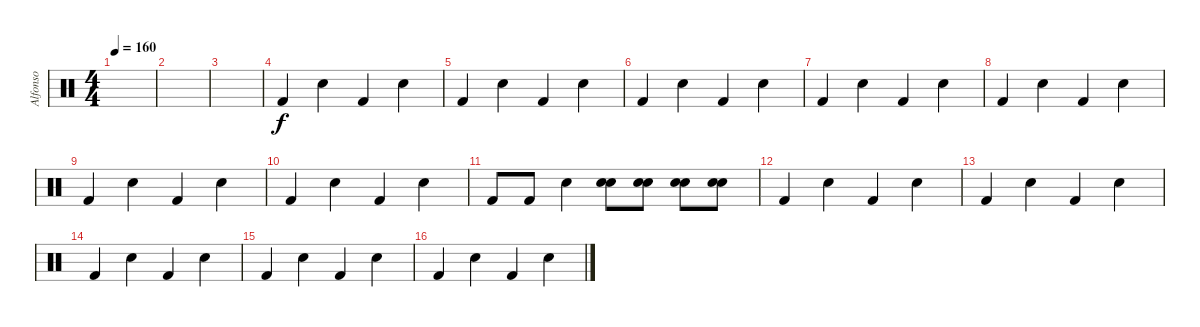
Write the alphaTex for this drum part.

\track ("Alfonso" "Alfonso") {instrument percussion}
\staff {score}
\articulation defaults
\ts (4 4)
\tempo 160
\clef neutral
\ks c
|
|
|
"Kick (hit) 2".4 "Electric Snare (hit)".4 "Kick (hit) 2".4 "Electric Snare (hit)".4 |
"Kick (hit) 2".4 "Electric Snare (hit)".4 "Kick (hit) 2".4 "Electric Snare (hit)".4 |
"Kick (hit) 2".4 "Electric Snare (hit)".4 "Kick (hit) 2".4 "Electric Snare (hit)".4 |
"Kick (hit) 2".4 "Electric Snare (hit)".4 "Kick (hit) 2".4 "Electric Snare (hit)".4 |
"Kick (hit) 2".4 "Electric Snare (hit)".4 "Kick (hit) 2".4 "Electric Snare (hit)".4 |
"Kick (hit) 2".4 "Electric Snare (hit)".4 "Kick (hit) 2".4 "Electric Snare (hit)".4 |
"Kick (hit) 2".4 "Electric Snare (hit)".4 "Kick (hit) 2".4 "Electric Snare (hit)".4 |
"Kick (hit) 2".8 "Kick (hit) 2".8 "Electric Snare (hit)".4 ("Electric Snare (hit)" "Snare (hit) 2").8 ("Electric Snare (hit)" "Snare (hit) 2").8 ("Electric Snare (hit)" "Snare (hit) 2").8 ("Electric Snare (hit)" "Snare (hit) 2").8 |
"Kick (hit) 2".4 "Electric Snare (hit)".4 "Kick (hit) 2".4 "Electric Snare (hit)".4 |
"Kick (hit) 2".4 "Electric Snare (hit)".4 "Kick (hit) 2".4 "Electric Snare (hit)".4 |
"Kick (hit) 2".4 "Electric Snare (hit)".4 "Kick (hit) 2".4 "Electric Snare (hit)".4 |
"Kick (hit) 2".4 "Electric Snare (hit)".4 "Kick (hit) 2".4 "Electric Snare (hit)".4 |
"Kick (hit) 2".4 "Electric Snare (hit)".4 "Kick (hit) 2".4 "Electric Snare (hit)".4
